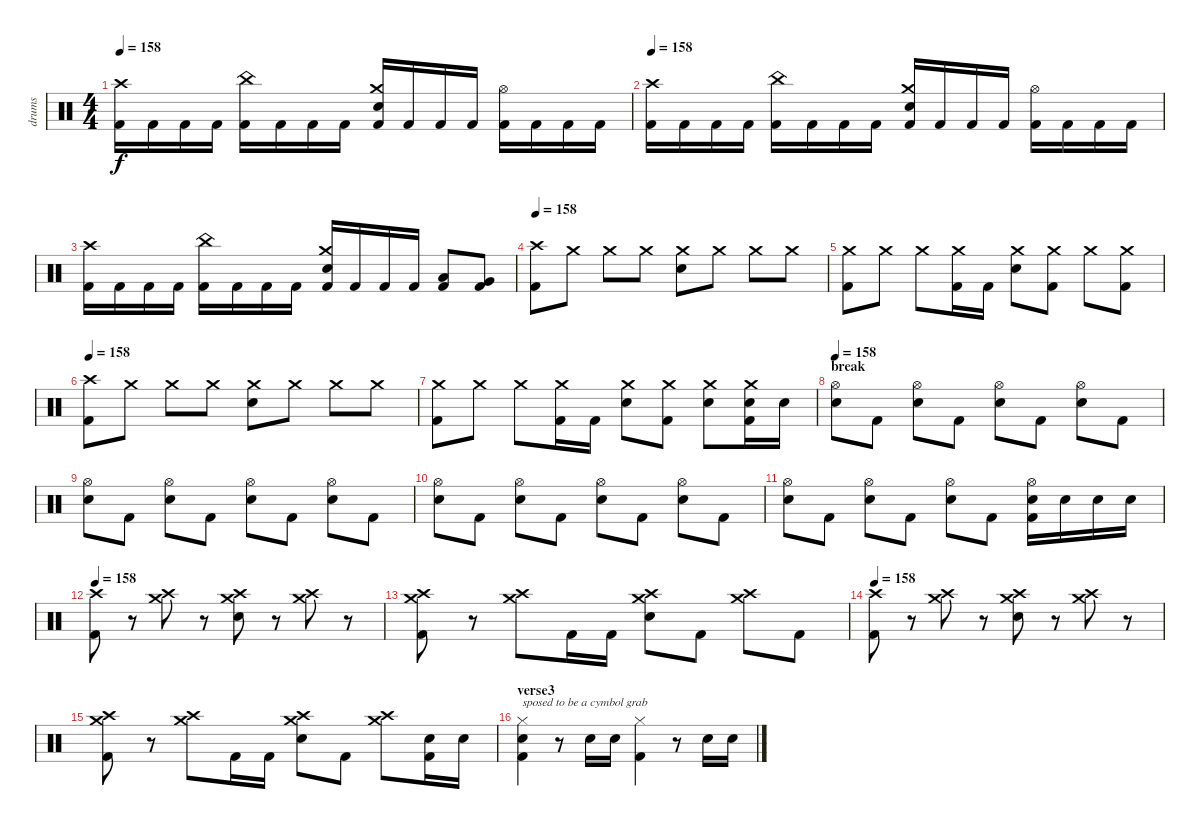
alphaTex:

\track ("drums" "drums") {instrument percussion}
\staff {score}
\articulation defaults
\ts (4 4)
\tempo 158
\clef neutral
\ks c
("Crash high (hit)" "Kick (hit) 2").16{dy f} "Kick (hit) 2".16 "Kick (hit) 2".16 "Kick (hit) 2".16 ("China (hit)" "Kick (hit) 2").16 "Kick (hit) 2".16 "Kick (hit) 2".16 "Kick (hit) 2".16 ("Crash medium (hit)" "Electric Snare (hit)" "Kick (hit) 2").16 "Kick (hit) 2".16 "Kick (hit) 2".16 "Kick (hit) 2".16 ("Hi-Hat (open)" "Kick (hit) 2").16 "Kick (hit) 2".16 "Kick (hit) 2".16 "Kick (hit) 2".16 |
\tempo 158
("Crash high (hit)" "Kick (hit) 2").16 "Kick (hit) 2".16 "Kick (hit) 2".16 "Kick (hit) 2".16 ("China (hit)" "Kick (hit) 2").16 "Kick (hit) 2".16 "Kick (hit) 2".16 "Kick (hit) 2".16 ("Crash medium (hit)" "Electric Snare (hit)" "Kick (hit) 2").16 "Kick (hit) 2".16 "Kick (hit) 2".16 "Kick (hit) 2".16 ("Hi-Hat (open)" "Kick (hit) 2").16 "Kick (hit) 2".16 "Kick (hit) 2".16 "Kick (hit) 2".16 |
("Crash high (hit)" "Kick (hit) 2").16 "Kick (hit) 2".16 "Kick (hit) 2".16 "Kick (hit) 2".16 ("China (hit)" "Kick (hit) 2").16 "Kick (hit) 2".16 "Kick (hit) 2".16 "Kick (hit) 2".16 ("Crash medium (hit)" "Electric Snare (hit)" "Kick (hit) 2").16 "Kick (hit) 2".16 "Kick (hit) 2".16 "Kick (hit) 2".16 ("Low Tom (hit)" "Kick (hit) 2").8 ("Very Low Tom (hit)" "Kick (hit) 2").8 |
\tempo 158
("Crash high (hit)" "Kick (hit) 2").8 "Crash medium (hit)".8 "Crash medium (hit)".8 "Crash medium (hit)".8 ("Crash medium (hit)" "Electric Snare (hit)").8 "Crash medium (hit)".8 "Crash medium (hit)".8 "Crash medium (hit)".8 |
("Crash medium (hit)" "Kick (hit) 2").8 "Crash medium (hit)".8 "Crash medium (hit)".8 ("Crash medium (hit)" "Kick (hit) 2").16 "Kick (hit) 2".16 ("Crash medium (hit)" "Electric Snare (hit)").8 ("Crash medium (hit)" "Kick (hit) 2").8 "Crash medium (hit)".8 ("Crash medium (hit)" "Kick (hit) 2").8 |
\tempo 158
("Crash high (hit)" "Kick (hit) 2").8 "Crash medium (hit)".8 "Crash medium (hit)".8 "Crash medium (hit)".8 ("Crash medium (hit)" "Electric Snare (hit)").8 "Crash medium (hit)".8 "Crash medium (hit)".8 "Crash medium (hit)".8 |
("Crash medium (hit)" "Kick (hit) 2").8 "Crash medium (hit)".8 "Crash medium (hit)".8 ("Crash medium (hit)" "Kick (hit) 2").16 "Kick (hit) 2".16 ("Crash medium (hit)" "Electric Snare (hit)").8 ("Crash medium (hit)" "Kick (hit) 2").8 ("Crash medium (hit)" "Electric Snare (hit)").8 ("Crash medium (hit)" "Electric Snare (hit)" "Kick (hit) 2").16 "Electric Snare (hit)".16 |
\section ("" "break")
\tempo 158
("Hi-Hat (open)" "Electric Snare (hit)").8 "Kick (hit) 2".8 ("Hi-Hat (open)" "Electric Snare (hit)").8 "Kick (hit) 2".8 ("Hi-Hat (open)" "Electric Snare (hit)").8 "Kick (hit) 2".8 ("Hi-Hat (open)" "Electric Snare (hit)").8 "Kick (hit) 2".8 |
("Hi-Hat (open)" "Electric Snare (hit)").8 "Kick (hit) 2".8 ("Hi-Hat (open)" "Electric Snare (hit)").8 "Kick (hit) 2".8 ("Hi-Hat (open)" "Electric Snare (hit)").8 "Kick (hit) 2".8 ("Hi-Hat (open)" "Electric Snare (hit)").8 "Kick (hit) 2".8 |
("Hi-Hat (open)" "Electric Snare (hit)").8 "Kick (hit) 2".8 ("Hi-Hat (open)" "Electric Snare (hit)").8 "Kick (hit) 2".8 ("Hi-Hat (open)" "Electric Snare (hit)").8 "Kick (hit) 2".8 ("Hi-Hat (open)" "Electric Snare (hit)").8 "Kick (hit) 2".8 |
("Hi-Hat (open)" "Electric Snare (hit)").8 "Kick (hit) 2".8 ("Hi-Hat (open)" "Electric Snare (hit)").8 "Kick (hit) 2".8 ("Hi-Hat (open)" "Electric Snare (hit)").8 "Kick (hit) 2".8 ("Hi-Hat (open)" "Electric Snare (hit)" "Kick (hit) 2").16 "Electric Snare (hit)".16 "Electric Snare (hit)".16 "Electric Snare (hit)".16 |
\tempo 158
("Crash high (hit)" "Kick (hit) 2").8 r.8 ("Crash high (hit)" "Crash medium (hit)").8 r.8 ("Crash high (hit)" "Crash medium (hit)" "Electric Snare (hit)").8 r.8 ("Crash high (hit)" "Crash medium (hit)").8 r.8 |
("Crash high (hit)" "Crash medium (hit)" "Kick (hit) 2").8 r.8 ("Crash high (hit)" "Crash medium (hit)").8 "Kick (hit) 2".16 "Kick (hit) 2".16 ("Crash high (hit)" "Crash medium (hit)" "Electric Snare (hit)").8 "Kick (hit) 2".8 ("Crash high (hit)" "Crash medium (hit)").8 "Kick (hit) 2".8 |
\tempo 158
("Crash high (hit)" "Kick (hit) 2").8 r.8 ("Crash high (hit)" "Crash medium (hit)").8 r.8 ("Crash high (hit)" "Crash medium (hit)" "Electric Snare (hit)").8 r.8 ("Crash high (hit)" "Crash medium (hit)").8 r.8 |
("Crash high (hit)" "Crash medium (hit)" "Kick (hit) 2").8 r.8 ("Crash high (hit)" "Crash medium (hit)").8 "Kick (hit) 2".16 "Kick (hit) 2".16 ("Crash high (hit)" "Crash medium (hit)" "Electric Snare (hit)").8 "Kick (hit) 2".8 ("Crash high (hit)" "Crash medium (hit)").8 ("Electric Snare (hit)" "Kick (hit) 2").16 "Electric Snare (hit)".16 |
\section ("" "verse3")
("Snare (hit)"{x} "Hi-Hat (closed)" "Kick (hit) 2").4{txt "sposed to be a cymbol grab"} r.8 "Electric Snare (hit)".16 "Electric Snare (hit)".16 ("Hi-Hat (closed)" "Kick (hit) 2").4 r.8 "Electric Snare (hit)".16 "Electric Snare (hit)".16
